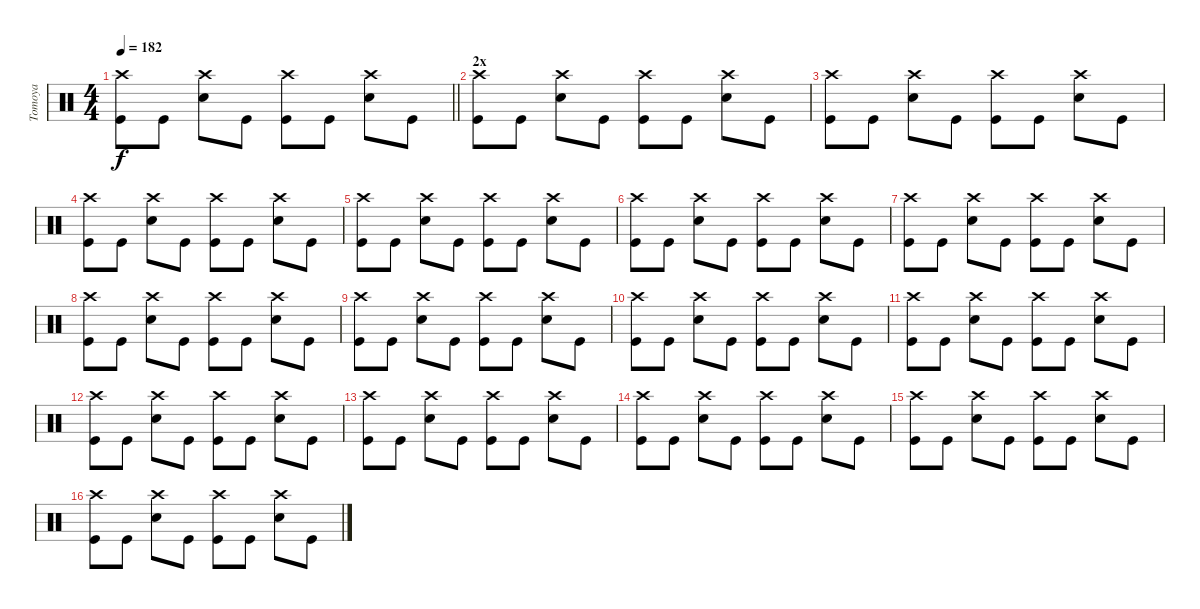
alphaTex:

\track ("Tomoya" "Tomoya") {instrument percussion}
\staff {score}
\articulation defaults
\ts (4 4)
\tempo 182
\clef neutral
\barLineRight lightlight
\ks c
("Crash high (hit)" "Kick (hit)").8{dy f} "Kick (hit)".8 ("Crash high (hit)" "Snare (hit) 2").8 "Kick (hit)".8 ("Crash high (hit)" "Kick (hit)").8 "Kick (hit)".8 ("Crash high (hit)" "Snare (hit) 2").8 "Kick (hit)".8 |
\section ("" "2x")
("Crash high (hit)" "Kick (hit)").8 "Kick (hit)".8 ("Crash high (hit)" "Snare (hit) 2").8 "Kick (hit)".8 ("Crash high (hit)" "Kick (hit)").8 "Kick (hit)".8 ("Crash high (hit)" "Snare (hit) 2").8 "Kick (hit)".8 |
("Crash high (hit)" "Kick (hit)").8 "Kick (hit)".8 ("Crash high (hit)" "Snare (hit) 2").8 "Kick (hit)".8 ("Crash high (hit)" "Kick (hit)").8 "Kick (hit)".8 ("Crash high (hit)" "Snare (hit) 2").8 "Kick (hit)".8 |
("Crash high (hit)" "Kick (hit)").8 "Kick (hit)".8 ("Crash high (hit)" "Snare (hit) 2").8 "Kick (hit)".8 ("Crash high (hit)" "Kick (hit)").8 "Kick (hit)".8 ("Crash high (hit)" "Snare (hit) 2").8 "Kick (hit)".8 |
("Crash high (hit)" "Kick (hit)").8 "Kick (hit)".8 ("Crash high (hit)" "Snare (hit) 2").8 "Kick (hit)".8 ("Crash high (hit)" "Kick (hit)").8 "Kick (hit)".8 ("Crash high (hit)" "Snare (hit) 2").8 "Kick (hit)".8 |
("Crash high (hit)" "Kick (hit)").8 "Kick (hit)".8 ("Crash high (hit)" "Snare (hit) 2").8 "Kick (hit)".8 ("Crash high (hit)" "Kick (hit)").8 "Kick (hit)".8 ("Crash high (hit)" "Snare (hit) 2").8 "Kick (hit)".8 |
("Crash high (hit)" "Kick (hit)").8 "Kick (hit)".8 ("Crash high (hit)" "Snare (hit) 2").8 "Kick (hit)".8 ("Crash high (hit)" "Kick (hit)").8 "Kick (hit)".8 ("Crash high (hit)" "Snare (hit) 2").8 "Kick (hit)".8 |
("Crash high (hit)" "Kick (hit)").8 "Kick (hit)".8 ("Crash high (hit)" "Snare (hit) 2").8 "Kick (hit)".8 ("Crash high (hit)" "Kick (hit)").8 "Kick (hit)".8 ("Crash high (hit)" "Snare (hit) 2").8 "Kick (hit)".8 |
("Crash high (hit)" "Kick (hit)").8 "Kick (hit)".8 ("Crash high (hit)" "Snare (hit) 2").8 "Kick (hit)".8 ("Crash high (hit)" "Kick (hit)").8 "Kick (hit)".8 ("Crash high (hit)" "Snare (hit) 2").8 "Kick (hit)".8 |
("Crash high (hit)" "Kick (hit)").8 "Kick (hit)".8 ("Crash high (hit)" "Snare (hit) 2").8 "Kick (hit)".8 ("Crash high (hit)" "Kick (hit)").8 "Kick (hit)".8 ("Crash high (hit)" "Snare (hit) 2").8 "Kick (hit)".8 |
("Crash high (hit)" "Kick (hit)").8 "Kick (hit)".8 ("Crash high (hit)" "Snare (hit) 2").8 "Kick (hit)".8 ("Crash high (hit)" "Kick (hit)").8 "Kick (hit)".8 ("Crash high (hit)" "Snare (hit) 2").8 "Kick (hit)".8 |
("Crash high (hit)" "Kick (hit)").8 "Kick (hit)".8 ("Crash high (hit)" "Snare (hit) 2").8 "Kick (hit)".8 ("Crash high (hit)" "Kick (hit)").8 "Kick (hit)".8 ("Crash high (hit)" "Snare (hit) 2").8 "Kick (hit)".8 |
("Crash high (hit)" "Kick (hit)").8 "Kick (hit)".8 ("Crash high (hit)" "Snare (hit) 2").8 "Kick (hit)".8 ("Crash high (hit)" "Kick (hit)").8 "Kick (hit)".8 ("Crash high (hit)" "Snare (hit) 2").8 "Kick (hit)".8 |
("Crash high (hit)" "Kick (hit)").8 "Kick (hit)".8 ("Crash high (hit)" "Snare (hit) 2").8 "Kick (hit)".8 ("Crash high (hit)" "Kick (hit)").8 "Kick (hit)".8 ("Crash high (hit)" "Snare (hit) 2").8 "Kick (hit)".8 |
("Crash high (hit)" "Kick (hit)").8 "Kick (hit)".8 ("Crash high (hit)" "Snare (hit) 2").8 "Kick (hit)".8 ("Crash high (hit)" "Kick (hit)").8 "Kick (hit)".8 ("Crash high (hit)" "Snare (hit) 2").8 "Kick (hit)".8 |
("Crash high (hit)" "Kick (hit)").8 "Kick (hit)".8 ("Crash high (hit)" "Snare (hit) 2").8 "Kick (hit)".8 ("Crash high (hit)" "Kick (hit)").8 "Kick (hit)".8 ("Crash high (hit)" "Snare (hit) 2").8 "Kick (hit)".8
